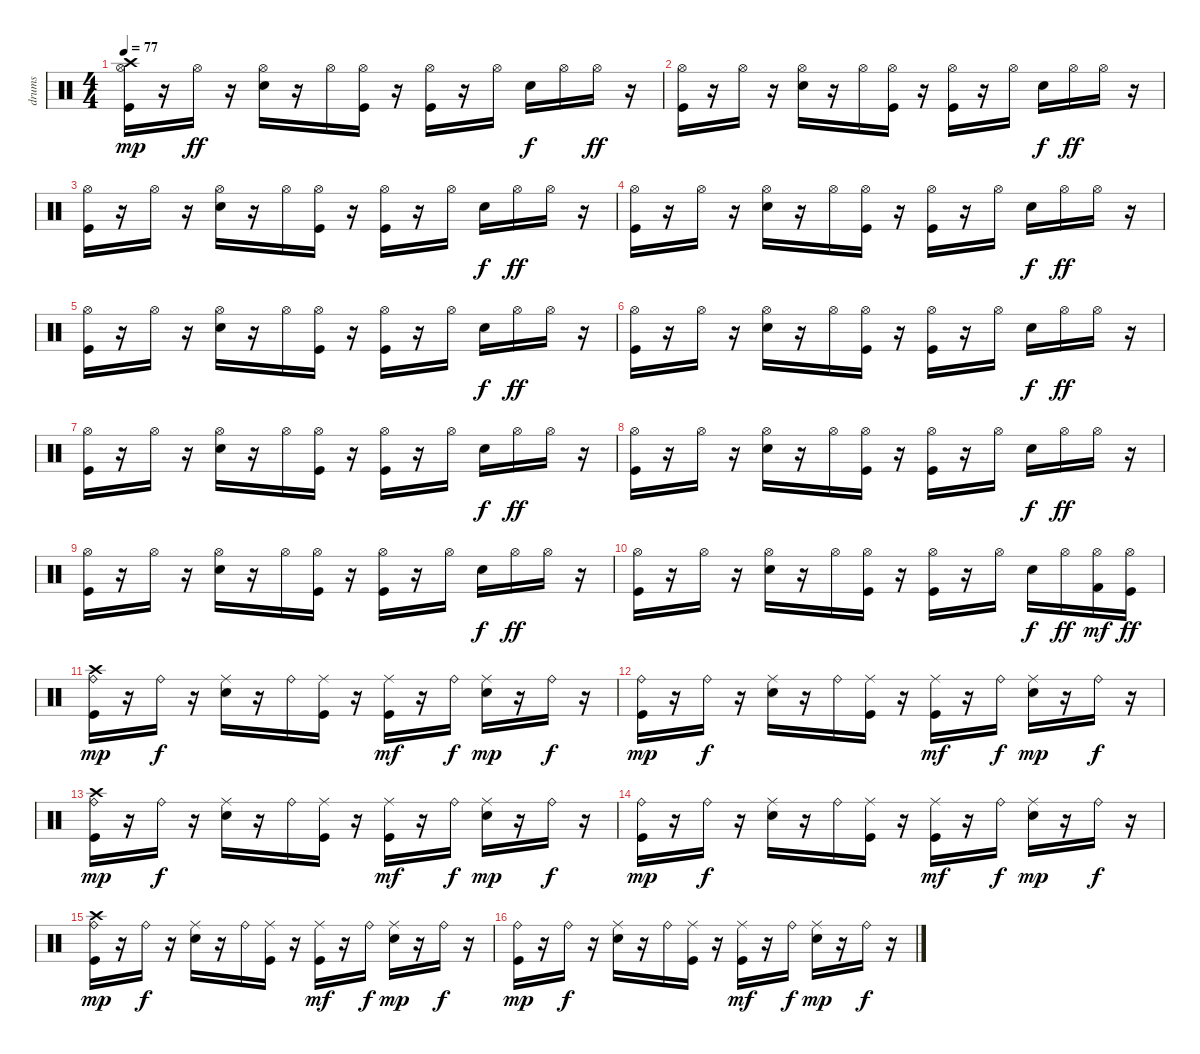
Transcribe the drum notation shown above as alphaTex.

\track ("drums" "drums") {instrument percussion}
\staff {score}
\articulation defaults
\ts (4 4)
\tempo 77
\clef neutral
\ks c
("Crash high (hit)" "Kick (hit)" "Hi-Hat (open)").16{dy mp} r.16 "Hi-Hat (open)".16{dy ff} r.16 ("Snare (hit) 2" "Hi-Hat (open)").16 r.16 "Hi-Hat (open)".16 ("Kick (hit)" "Hi-Hat (open)").16 r.16 ("Kick (hit)" "Hi-Hat (open)").16 r.16 "Hi-Hat (open)".16 "Snare (hit) 2".16{dy f} "Hi-Hat (open)".16 "Hi-Hat (open)".16{dy ff} r.16 |
("Kick (hit)" "Hi-Hat (open)").16 r.16 "Hi-Hat (open)".16 r.16 ("Snare (hit) 2" "Hi-Hat (open)").16 r.16 "Hi-Hat (open)".16 ("Kick (hit)" "Hi-Hat (open)").16 r.16 ("Kick (hit)" "Hi-Hat (open)").16 r.16 "Hi-Hat (open)".16 "Snare (hit) 2".16{dy f} "Hi-Hat (open)".16{dy ff} "Hi-Hat (open)".16 r.16 |
("Kick (hit)" "Hi-Hat (open)").16 r.16 "Hi-Hat (open)".16 r.16 ("Snare (hit) 2" "Hi-Hat (open)").16 r.16 "Hi-Hat (open)".16 ("Kick (hit)" "Hi-Hat (open)").16 r.16 ("Kick (hit)" "Hi-Hat (open)").16 r.16 "Hi-Hat (open)".16 "Snare (hit) 2".16{dy f} "Hi-Hat (open)".16{dy ff} "Hi-Hat (open)".16 r.16 |
("Kick (hit)" "Hi-Hat (open)").16 r.16 "Hi-Hat (open)".16 r.16 ("Snare (hit) 2" "Hi-Hat (open)").16 r.16 "Hi-Hat (open)".16 ("Kick (hit)" "Hi-Hat (open)").16 r.16 ("Kick (hit)" "Hi-Hat (open)").16 r.16 "Hi-Hat (open)".16 "Snare (hit) 2".16{dy f} "Hi-Hat (open)".16{dy ff} "Hi-Hat (open)".16 r.16 |
("Kick (hit)" "Hi-Hat (open)").16 r.16 "Hi-Hat (open)".16 r.16 ("Snare (hit) 2" "Hi-Hat (open)").16 r.16 "Hi-Hat (open)".16 ("Kick (hit)" "Hi-Hat (open)").16 r.16 ("Kick (hit)" "Hi-Hat (open)").16 r.16 "Hi-Hat (open)".16 "Snare (hit) 2".16{dy f} "Hi-Hat (open)".16{dy ff} "Hi-Hat (open)".16 r.16 |
("Kick (hit)" "Hi-Hat (open)").16 r.16 "Hi-Hat (open)".16 r.16 ("Snare (hit) 2" "Hi-Hat (open)").16 r.16 "Hi-Hat (open)".16 ("Kick (hit)" "Hi-Hat (open)").16 r.16 ("Kick (hit)" "Hi-Hat (open)").16 r.16 "Hi-Hat (open)".16 "Snare (hit) 2".16{dy f} "Hi-Hat (open)".16{dy ff} "Hi-Hat (open)".16 r.16 |
("Kick (hit)" "Hi-Hat (open)").16 r.16 "Hi-Hat (open)".16 r.16 ("Snare (hit) 2" "Hi-Hat (open)").16 r.16 "Hi-Hat (open)".16 ("Kick (hit)" "Hi-Hat (open)").16 r.16 ("Kick (hit)" "Hi-Hat (open)").16 r.16 "Hi-Hat (open)".16 "Snare (hit) 2".16{dy f} "Hi-Hat (open)".16{dy ff} "Hi-Hat (open)".16 r.16 |
("Kick (hit)" "Hi-Hat (open)").16 r.16 "Hi-Hat (open)".16 r.16 ("Snare (hit) 2" "Hi-Hat (open)").16 r.16 "Hi-Hat (open)".16 ("Kick (hit)" "Hi-Hat (open)").16 r.16 ("Kick (hit)" "Hi-Hat (open)").16 r.16 "Hi-Hat (open)".16 "Snare (hit) 2".16{dy f} "Hi-Hat (open)".16{dy ff} "Hi-Hat (open)".16 r.16 |
("Kick (hit)" "Hi-Hat (open)").16 r.16 "Hi-Hat (open)".16 r.16 ("Snare (hit) 2" "Hi-Hat (open)").16 r.16 "Hi-Hat (open)".16 ("Kick (hit)" "Hi-Hat (open)").16 r.16 ("Kick (hit)" "Hi-Hat (open)").16 r.16 "Hi-Hat (open)".16 "Snare (hit) 2".16{dy f} "Hi-Hat (open)".16{dy ff} "Hi-Hat (open)".16 r.16 |
("Kick (hit)" "Hi-Hat (open)").16 r.16 "Hi-Hat (open)".16 r.16 ("Snare (hit) 2" "Hi-Hat (open)").16 r.16 "Hi-Hat (open)".16 ("Kick (hit)" "Hi-Hat (open)").16 r.16 ("Kick (hit)" "Hi-Hat (open)").16 r.16 "Hi-Hat (open)".16 "Snare (hit) 2".16{dy f} "Hi-Hat (open)".16{dy ff} ("Hi-Hat (open)" "Kick (hit) 2").16{dy mf} ("Hi-Hat (open)" "Kick (hit)").16{dy ff} |
("Crash high (hit)" "Kick (hit)" "Ride (bell)").16{dy mp} r.16 "Ride (bell)".16{dy f} r.16 ("Snare (hit) 2" "Ride (middle)").16 r.16 "Ride (bell)".16 ("Kick (hit)" "Ride (middle)").16 r.16 ("Kick (hit)" "Ride (middle)").16{dy mf} r.16 "Ride (bell)".16{dy f} ("Snare (hit) 2" "Ride (middle)").16{dy mp} r.16 "Ride (bell)".16{dy f} r.16 |
("Kick (hit)" "Ride (bell)").16{dy mp} r.16 "Ride (bell)".16{dy f} r.16 ("Snare (hit) 2" "Ride (middle)").16 r.16 "Ride (bell)".16 ("Kick (hit)" "Ride (middle)").16 r.16 ("Kick (hit)" "Ride (middle)").16{dy mf} r.16 "Ride (bell)".16{dy f} ("Snare (hit) 2" "Ride (middle)").16{dy mp} r.16 "Ride (bell)".16{dy f} r.16 |
("Crash high (hit)" "Kick (hit)" "Ride (bell)").16{dy mp} r.16 "Ride (bell)".16{dy f} r.16 ("Snare (hit) 2" "Ride (middle)").16 r.16 "Ride (bell)".16 ("Kick (hit)" "Ride (middle)").16 r.16 ("Kick (hit)" "Ride (middle)").16{dy mf} r.16 "Ride (bell)".16{dy f} ("Snare (hit) 2" "Ride (middle)").16{dy mp} r.16 "Ride (bell)".16{dy f} r.16 |
("Kick (hit)" "Ride (bell)").16{dy mp} r.16 "Ride (bell)".16{dy f} r.16 ("Snare (hit) 2" "Ride (middle)").16 r.16 "Ride (bell)".16 ("Kick (hit)" "Ride (middle)").16 r.16 ("Kick (hit)" "Ride (middle)").16{dy mf} r.16 "Ride (bell)".16{dy f} ("Snare (hit) 2" "Ride (middle)").16{dy mp} r.16 "Ride (bell)".16{dy f} r.16 |
("Crash high (hit)" "Kick (hit)" "Ride (bell)").16{dy mp} r.16 "Ride (bell)".16{dy f} r.16 ("Snare (hit) 2" "Ride (middle)").16 r.16 "Ride (bell)".16 ("Kick (hit)" "Ride (middle)").16 r.16 ("Kick (hit)" "Ride (middle)").16{dy mf} r.16 "Ride (bell)".16{dy f} ("Snare (hit) 2" "Ride (middle)").16{dy mp} r.16 "Ride (bell)".16{dy f} r.16 |
("Kick (hit)" "Ride (bell)").16{dy mp} r.16 "Ride (bell)".16{dy f} r.16 ("Snare (hit) 2" "Ride (middle)").16 r.16 "Ride (bell)".16 ("Kick (hit)" "Ride (middle)").16 r.16 ("Kick (hit)" "Ride (middle)").16{dy mf} r.16 "Ride (bell)".16{dy f} ("Snare (hit) 2" "Ride (middle)").16{dy mp} r.16 "Ride (bell)".16{dy f} r.16
